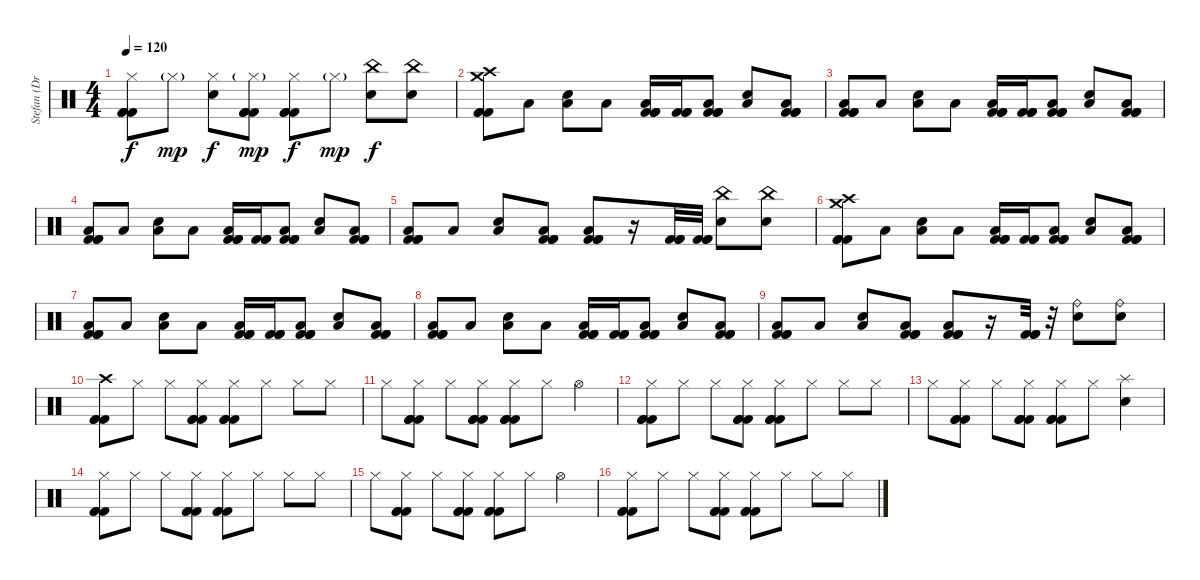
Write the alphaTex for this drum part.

\track ("Stefan (Drums)" "Stefan (Dr") {instrument percussion}
\staff {score}
\articulation defaults
\ts (4 4)
\tempo 120
\clef neutral
\ks c
("Hi-Hat (closed)" "Kick (hit) 2" "Kick (hit) 2" "Kick (hit) 2").8{dy f} "Hi-Hat (closed)"{g}.8{dy mp} ("Hi-Hat (closed)" "Snare (hit) 2").8{dy f} ("Hi-Hat (closed)"{g} "Kick (hit) 2" "Kick (hit) 2" "Kick (hit) 2").8{dy mp} ("Hi-Hat (closed)" "Kick (hit) 2" "Kick (hit) 2" "Kick (hit) 2").8{dy f} "Hi-Hat (closed)"{g}.8{dy mp} ("China (hit)" "Snare (hit) 2").8{dy f} ("China (hit)" "Snare (hit) 2").8 |
("Crash high (hit)" "Crash medium (hit)" "Kick (hit) 2" "Kick (hit) 2" "Kick (hit) 2").8 "Low Tom (hit)".8 ("Snare (hit) 2" "Low Tom (hit)").8 "Low Tom (hit)".8 ("Low Tom (hit)" "Kick (hit) 2" "Kick (hit) 2" "Kick (hit) 2").16 ("Kick (hit) 2" "Kick (hit) 2" "Kick (hit) 2").16 ("Low Tom (hit)" "Kick (hit) 2" "Kick (hit) 2" "Kick (hit) 2").8 ("Snare (hit) 2" "Low Tom (hit)").8 ("Low Tom (hit)" "Kick (hit) 2" "Kick (hit) 2" "Kick (hit) 2").8 |
("Low Tom (hit)" "Kick (hit) 2" "Kick (hit) 2" "Kick (hit) 2").8 "Low Tom (hit)".8 ("Snare (hit) 2" "Low Tom (hit)").8 "Low Tom (hit)".8 ("Low Tom (hit)" "Kick (hit) 2" "Kick (hit) 2" "Kick (hit) 2").16 ("Kick (hit) 2" "Kick (hit) 2" "Kick (hit) 2").16 ("Low Tom (hit)" "Kick (hit) 2" "Kick (hit) 2" "Kick (hit) 2").8 ("Snare (hit) 2" "Low Tom (hit)").8 ("Low Tom (hit)" "Kick (hit) 2" "Kick (hit) 2" "Kick (hit) 2").8 |
("Low Tom (hit)" "Kick (hit) 2" "Kick (hit) 2" "Kick (hit) 2").8 "Low Tom (hit)".8 ("Snare (hit) 2" "Low Tom (hit)").8 "Low Tom (hit)".8 ("Low Tom (hit)" "Kick (hit) 2" "Kick (hit) 2" "Kick (hit) 2").16 ("Kick (hit) 2" "Kick (hit) 2" "Kick (hit) 2").16 ("Low Tom (hit)" "Kick (hit) 2" "Kick (hit) 2" "Kick (hit) 2").8 ("Snare (hit) 2" "Low Tom (hit)").8 ("Low Tom (hit)" "Kick (hit) 2" "Kick (hit) 2" "Kick (hit) 2").8 |
("Low Tom (hit)" "Kick (hit) 2" "Kick (hit) 2" "Kick (hit) 2").8 "Low Tom (hit)".8 ("Snare (hit) 2" "Low Tom (hit)").8 ("Low Tom (hit)" "Kick (hit) 2" "Kick (hit) 2" "Kick (hit) 2").8 ("Low Tom (hit)" "Kick (hit) 2" "Kick (hit) 2" "Kick (hit) 2").8 r.16 ("Kick (hit) 2" "Kick (hit) 2" "Kick (hit) 2").32 ("Kick (hit) 2" "Kick (hit) 2" "Kick (hit) 2").32 ("China (hit)" "Snare (hit) 2").8 ("China (hit)" "Snare (hit) 2").8 |
("Crash high (hit)" "Crash medium (hit)" "Kick (hit) 2" "Kick (hit) 2" "Kick (hit) 2").8 "Low Tom (hit)".8 ("Snare (hit) 2" "Low Tom (hit)").8 "Low Tom (hit)".8 ("Low Tom (hit)" "Kick (hit) 2" "Kick (hit) 2" "Kick (hit) 2").16 ("Kick (hit) 2" "Kick (hit) 2" "Kick (hit) 2").16 ("Low Tom (hit)" "Kick (hit) 2" "Kick (hit) 2" "Kick (hit) 2").8 ("Snare (hit) 2" "Low Tom (hit)").8 ("Low Tom (hit)" "Kick (hit) 2" "Kick (hit) 2" "Kick (hit) 2").8 |
("Low Tom (hit)" "Kick (hit) 2" "Kick (hit) 2" "Kick (hit) 2").8 "Low Tom (hit)".8 ("Snare (hit) 2" "Low Tom (hit)").8 "Low Tom (hit)".8 ("Low Tom (hit)" "Kick (hit) 2" "Kick (hit) 2" "Kick (hit) 2").16 ("Kick (hit) 2" "Kick (hit) 2" "Kick (hit) 2").16 ("Low Tom (hit)" "Kick (hit) 2" "Kick (hit) 2" "Kick (hit) 2").8 ("Snare (hit) 2" "Low Tom (hit)").8 ("Low Tom (hit)" "Kick (hit) 2" "Kick (hit) 2" "Kick (hit) 2").8 |
("Low Tom (hit)" "Kick (hit) 2" "Kick (hit) 2" "Kick (hit) 2").8 "Low Tom (hit)".8 ("Snare (hit) 2" "Low Tom (hit)").8 "Low Tom (hit)".8 ("Low Tom (hit)" "Kick (hit) 2" "Kick (hit) 2" "Kick (hit) 2").16 ("Kick (hit) 2" "Kick (hit) 2" "Kick (hit) 2").16 ("Low Tom (hit)" "Kick (hit) 2" "Kick (hit) 2" "Kick (hit) 2").8 ("Snare (hit) 2" "Low Tom (hit)").8 ("Low Tom (hit)" "Kick (hit) 2" "Kick (hit) 2" "Kick (hit) 2").8 |
("Low Tom (hit)" "Kick (hit) 2" "Kick (hit) 2" "Kick (hit) 2").8 "Low Tom (hit)".8 ("Snare (hit) 2" "Low Tom (hit)").8 ("Low Tom (hit)" "Kick (hit) 2" "Kick (hit) 2" "Kick (hit) 2").8 ("Low Tom (hit)" "Kick (hit) 2" "Kick (hit) 2" "Kick (hit) 2").8 r.16 ("Kick (hit) 2" "Kick (hit) 2" "Kick (hit) 2").32 r.32 ("Ride (bell)" "Snare (hit) 2").8 ("Ride (bell)" "Snare (hit) 2").8 |
("Crash high (hit)" "Kick (hit) 2" "Kick (hit) 2" "Kick (hit) 2").8 "Hi-Hat (closed)".8 "Hi-Hat (closed)".8 ("Hi-Hat (closed)" "Kick (hit) 2" "Kick (hit) 2" "Kick (hit) 2").8 ("Hi-Hat (closed)" "Kick (hit) 2" "Kick (hit) 2" "Kick (hit) 2").8 "Hi-Hat (closed)".8 "Hi-Hat (closed)".8 "Hi-Hat (closed)".8 |
"Hi-Hat (closed)".8 ("Hi-Hat (closed)" "Kick (hit) 2" "Kick (hit) 2" "Kick (hit) 2").8 "Hi-Hat (closed)".8 ("Hi-Hat (closed)" "Kick (hit) 2" "Kick (hit) 2" "Kick (hit) 2").8 ("Hi-Hat (closed)" "Kick (hit) 2" "Kick (hit) 2" "Kick (hit) 2").8 "Hi-Hat (closed)".8 "Hi-Hat (open)".4 |
("Hi-Hat (closed)" "Kick (hit) 2" "Kick (hit) 2" "Kick (hit) 2").8 "Hi-Hat (closed)".8 "Hi-Hat (closed)".8 ("Hi-Hat (closed)" "Kick (hit) 2" "Kick (hit) 2" "Kick (hit) 2").8 ("Hi-Hat (closed)" "Kick (hit) 2" "Kick (hit) 2" "Kick (hit) 2").8 "Hi-Hat (closed)".8 "Hi-Hat (closed)".8 "Hi-Hat (closed)".8 |
"Hi-Hat (closed)".8 ("Hi-Hat (closed)" "Kick (hit) 2" "Kick (hit) 2" "Kick (hit) 2").8 "Hi-Hat (closed)".8 ("Hi-Hat (closed)" "Kick (hit) 2" "Kick (hit) 2" "Kick (hit) 2").8 ("Hi-Hat (closed)" "Kick (hit) 2" "Kick (hit) 2" "Kick (hit) 2").8 "Hi-Hat (closed)".8 ("Splash (hit)" "Electric Snare (hit)").4 |
("Hi-Hat (closed)" "Kick (hit) 2" "Kick (hit) 2" "Kick (hit) 2").8 "Hi-Hat (closed)".8 "Hi-Hat (closed)".8 ("Hi-Hat (closed)" "Kick (hit) 2" "Kick (hit) 2" "Kick (hit) 2").8 ("Hi-Hat (closed)" "Kick (hit) 2" "Kick (hit) 2" "Kick (hit) 2").8 "Hi-Hat (closed)".8 "Hi-Hat (closed)".8 "Hi-Hat (closed)".8 |
"Hi-Hat (closed)".8 ("Hi-Hat (closed)" "Kick (hit) 2" "Kick (hit) 2" "Kick (hit) 2").8 "Hi-Hat (closed)".8 ("Hi-Hat (closed)" "Kick (hit) 2" "Kick (hit) 2" "Kick (hit) 2").8 ("Hi-Hat (closed)" "Kick (hit) 2" "Kick (hit) 2" "Kick (hit) 2").8 "Hi-Hat (closed)".8 "Hi-Hat (open)".4 |
("Hi-Hat (closed)" "Kick (hit) 2" "Kick (hit) 2" "Kick (hit) 2").8 "Hi-Hat (closed)".8 "Hi-Hat (closed)".8 ("Hi-Hat (closed)" "Kick (hit) 2" "Kick (hit) 2" "Kick (hit) 2").8 ("Hi-Hat (closed)" "Kick (hit) 2" "Kick (hit) 2" "Kick (hit) 2").8 "Hi-Hat (closed)".8 "Hi-Hat (closed)".8 "Hi-Hat (closed)".8
